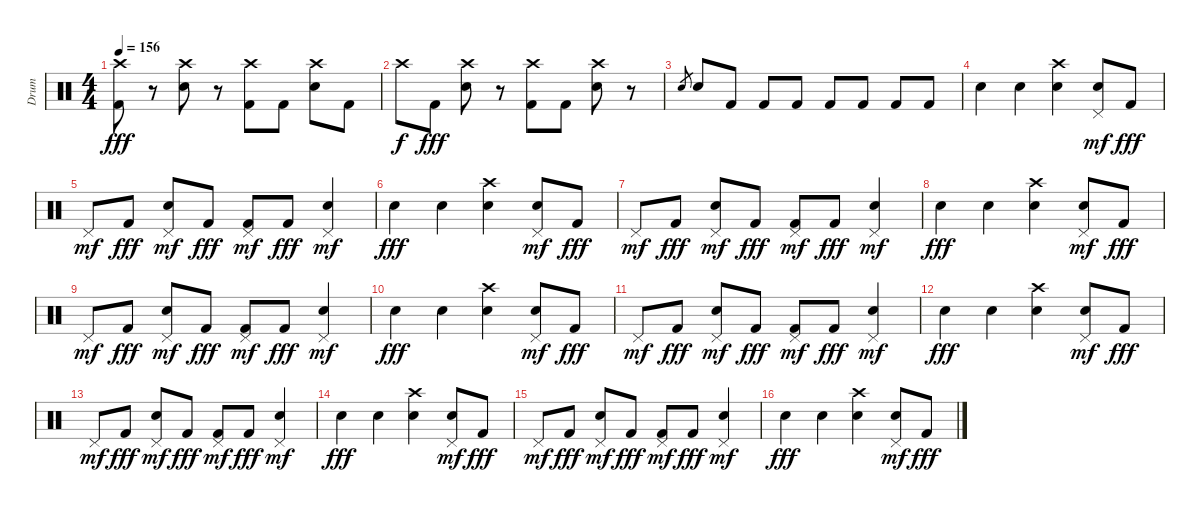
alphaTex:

\track ("Drum" "Drum") {instrument percussion}
\staff {score}
\articulation defaults
\ts (4 4)
\tempo 156
\clef neutral
\ks c
("Kick (hit) 2" "Crash high (hit)").8{dy fff} r.8 ("Electric Snare (hit)" "Crash high (hit)").8 r.8 ("Kick (hit) 2" "Crash high (hit)").8 "Kick (hit) 2".8 ("Electric Snare (hit)" "Crash high (hit)").8 "Kick (hit) 2".8 |
"Crash high (hit)".8{dy f} "Kick (hit) 2".8{dy fff} ("Electric Snare (hit)" "Crash high (hit)").8 r.8 ("Kick (hit) 2" "Crash high (hit)").8 "Kick (hit) 2".8 ("Electric Snare (hit)" "Crash high (hit)").8 r.8 |
"Electric Snare (hit)".8{gr} "Electric Snare (hit)".8 "Kick (hit) 2".8 "Kick (hit) 2".8 "Kick (hit) 2".8 "Kick (hit) 2".8 "Kick (hit) 2".8 "Kick (hit) 2".8 "Kick (hit) 2".8 |
"Electric Snare (hit)".4 "Electric Snare (hit)".4 ("Electric Snare (hit)" "Crash high (hit)").4 ("Electric Snare (hit)" "Pedal Hi-Hat (hit)").8{dy mf} "Kick (hit) 2".8{dy fff} |
"Pedal Hi-Hat (hit)".8{dy mf} "Kick (hit) 2".8{dy fff} ("Electric Snare (hit)" "Pedal Hi-Hat (hit)").8{dy mf} "Kick (hit) 2".8{dy fff} ("Kick (hit) 2" "Pedal Hi-Hat (hit)").8{dy mf} "Kick (hit) 2".8{dy fff} ("Electric Snare (hit)" "Pedal Hi-Hat (hit)").4{dy mf} |
"Electric Snare (hit)".4{dy fff} "Electric Snare (hit)".4 ("Electric Snare (hit)" "Crash high (hit)").4 ("Electric Snare (hit)" "Pedal Hi-Hat (hit)").8{dy mf} "Kick (hit) 2".8{dy fff} |
"Pedal Hi-Hat (hit)".8{dy mf} "Kick (hit) 2".8{dy fff} ("Electric Snare (hit)" "Pedal Hi-Hat (hit)").8{dy mf} "Kick (hit) 2".8{dy fff} ("Kick (hit) 2" "Pedal Hi-Hat (hit)").8{dy mf} "Kick (hit) 2".8{dy fff} ("Electric Snare (hit)" "Pedal Hi-Hat (hit)").4{dy mf} |
"Electric Snare (hit)".4{dy fff} "Electric Snare (hit)".4 ("Electric Snare (hit)" "Crash high (hit)").4 ("Electric Snare (hit)" "Pedal Hi-Hat (hit)").8{dy mf} "Kick (hit) 2".8{dy fff} |
"Pedal Hi-Hat (hit)".8{dy mf} "Kick (hit) 2".8{dy fff} ("Electric Snare (hit)" "Pedal Hi-Hat (hit)").8{dy mf} "Kick (hit) 2".8{dy fff} ("Kick (hit) 2" "Pedal Hi-Hat (hit)").8{dy mf} "Kick (hit) 2".8{dy fff} ("Electric Snare (hit)" "Pedal Hi-Hat (hit)").4{dy mf} |
"Electric Snare (hit)".4{dy fff} "Electric Snare (hit)".4 ("Electric Snare (hit)" "Crash high (hit)").4 ("Electric Snare (hit)" "Pedal Hi-Hat (hit)").8{dy mf} "Kick (hit) 2".8{dy fff} |
"Pedal Hi-Hat (hit)".8{dy mf} "Kick (hit) 2".8{dy fff} ("Electric Snare (hit)" "Pedal Hi-Hat (hit)").8{dy mf} "Kick (hit) 2".8{dy fff} ("Kick (hit) 2" "Pedal Hi-Hat (hit)").8{dy mf} "Kick (hit) 2".8{dy fff} ("Electric Snare (hit)" "Pedal Hi-Hat (hit)").4{dy mf} |
"Electric Snare (hit)".4{dy fff} "Electric Snare (hit)".4 ("Electric Snare (hit)" "Crash high (hit)").4 ("Electric Snare (hit)" "Pedal Hi-Hat (hit)").8{dy mf} "Kick (hit) 2".8{dy fff} |
"Pedal Hi-Hat (hit)".8{dy mf} "Kick (hit) 2".8{dy fff} ("Electric Snare (hit)" "Pedal Hi-Hat (hit)").8{dy mf} "Kick (hit) 2".8{dy fff} ("Kick (hit) 2" "Pedal Hi-Hat (hit)").8{dy mf} "Kick (hit) 2".8{dy fff} ("Electric Snare (hit)" "Pedal Hi-Hat (hit)").4{dy mf} |
"Electric Snare (hit)".4{dy fff} "Electric Snare (hit)".4 ("Electric Snare (hit)" "Crash high (hit)").4 ("Electric Snare (hit)" "Pedal Hi-Hat (hit)").8{dy mf} "Kick (hit) 2".8{dy fff} |
"Pedal Hi-Hat (hit)".8{dy mf} "Kick (hit) 2".8{dy fff} ("Electric Snare (hit)" "Pedal Hi-Hat (hit)").8{dy mf} "Kick (hit) 2".8{dy fff} ("Kick (hit) 2" "Pedal Hi-Hat (hit)").8{dy mf} "Kick (hit) 2".8{dy fff} ("Electric Snare (hit)" "Pedal Hi-Hat (hit)").4{dy mf} |
"Electric Snare (hit)".4{dy fff} "Electric Snare (hit)".4 ("Electric Snare (hit)" "Crash high (hit)").4 ("Electric Snare (hit)" "Pedal Hi-Hat (hit)").8{dy mf} "Kick (hit) 2".8{dy fff}
